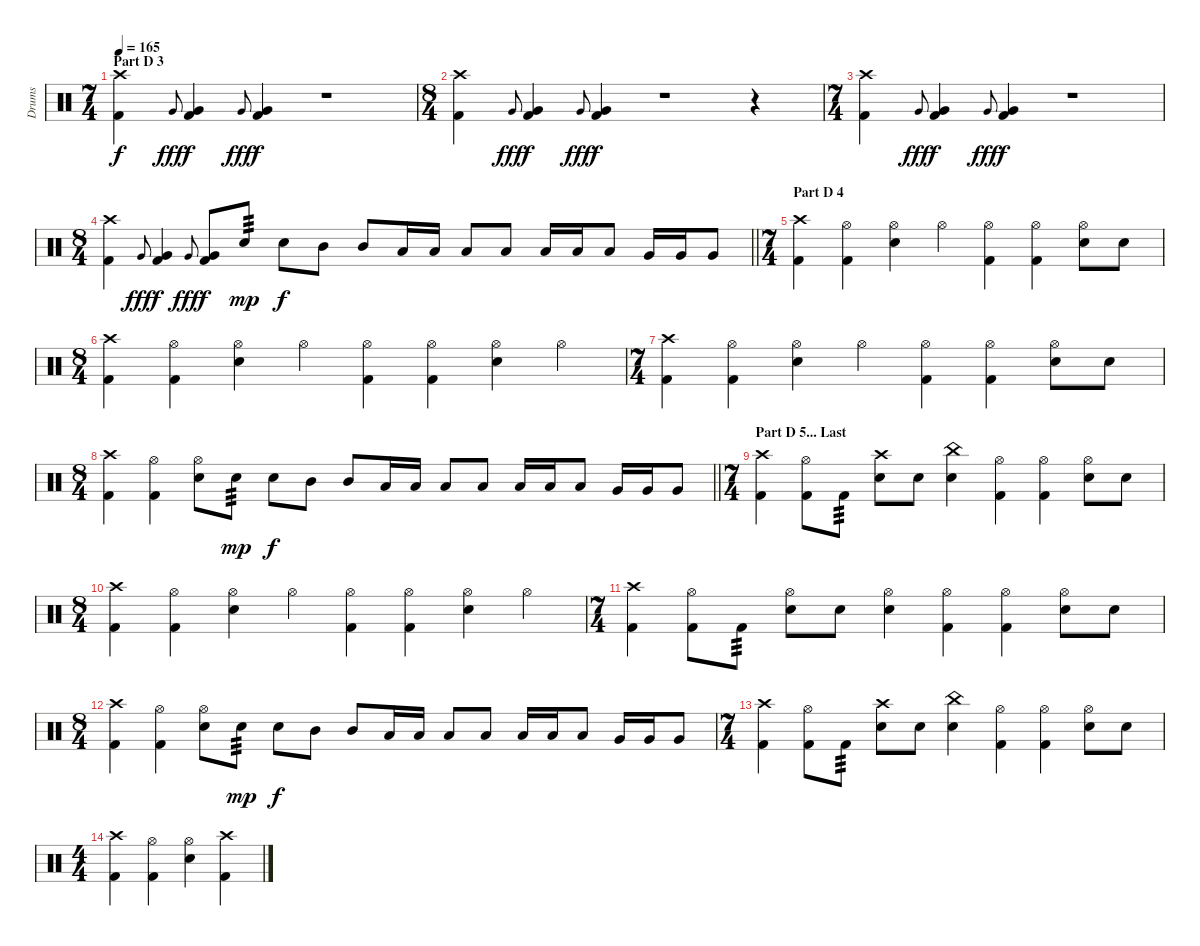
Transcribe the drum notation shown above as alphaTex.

\track ("Drums" "Drums") {instrument percussion}
\staff {score}
\articulation defaults
\ts (7 4)
\section ("" "Part D 3")
\tempo 165
\clef neutral
\ks c
("Kick (hit) 2" "Crash high (hit)").4{dy f} "Very Low Tom (hit)".8{gr onbeat dy fff} ("Kick (hit) 2" "Very Low Tom (hit)").4{dy f} "Very Low Tom (hit)".8{gr onbeat dy fff} ("Very Low Tom (hit)" "Kick (hit) 2").4{dy f} r.1 |
\ts (8 4)
("Kick (hit) 2" "Crash high (hit)").4 "Very Low Tom (hit)".8{gr onbeat dy fff} ("Kick (hit) 2" "Very Low Tom (hit)").4{dy f} "Very Low Tom (hit)".8{gr onbeat dy fff} ("Very Low Tom (hit)" "Kick (hit) 2").4{dy f} r.1 r.4 |
\ts (7 4)
("Kick (hit) 2" "Crash high (hit)").4 "Very Low Tom (hit)".8{gr onbeat dy fff} ("Kick (hit) 2" "Very Low Tom (hit)").4{dy f} "Very Low Tom (hit)".8{gr onbeat dy fff} ("Very Low Tom (hit)" "Kick (hit) 2").4{dy f} r.1 |
\ts (8 4)
\barLineRight lightlight
("Kick (hit) 2" "Crash high (hit)").4 "Very Low Tom (hit)".8{gr onbeat dy fff} ("Kick (hit) 2" "Very Low Tom (hit)").4{dy f} "Very Low Tom (hit)".8{gr onbeat dy fff} ("Very Low Tom (hit)" "Kick (hit) 2").8{dy f} "Snare (hit) 2".8{tp 3 dy mp} "Snare (hit) 2".8{dy f} "Mid Tom (hit)".8 "Mid Tom (hit)".8 "Low Tom (hit)".16 "Low Tom (hit)".16 "Low Tom (hit)".8 "Low Tom (hit)".8 "Low Tom (hit)".16 "Low Tom (hit)".16 "Low Tom (hit)".8 "Very Low Tom (hit)".16 "Very Low Tom (hit)".16 "Very Low Tom (hit)".8 |
\ts (7 4)
\section ("" "Part D 4")
("Kick (hit) 2" "Crash high (hit)").4 ("Hi-Hat (open)" "Kick (hit) 2").4 ("Hi-Hat (open)" "Snare (hit) 2").4 "Hi-Hat (open)".4 ("Hi-Hat (open)" "Kick (hit) 2").4 ("Hi-Hat (open)" "Kick (hit) 2").4 ("Hi-Hat (open)" "Snare (hit) 2").8 "Snare (hit) 2".8 |
\ts (8 4)
("Kick (hit) 2" "Crash high (hit)").4 ("Hi-Hat (open)" "Kick (hit) 2").4 ("Hi-Hat (open)" "Snare (hit) 2").4 "Hi-Hat (open)".4 ("Hi-Hat (open)" "Kick (hit) 2").4 ("Hi-Hat (open)" "Kick (hit) 2").4 ("Hi-Hat (open)" "Snare (hit) 2").4 "Hi-Hat (open)".4 |
\ts (7 4)
("Kick (hit) 2" "Crash high (hit)").4 ("Hi-Hat (open)" "Kick (hit) 2").4 ("Hi-Hat (open)" "Snare (hit) 2").4 "Hi-Hat (open)".4 ("Hi-Hat (open)" "Kick (hit) 2").4 ("Hi-Hat (open)" "Kick (hit) 2").4 ("Hi-Hat (open)" "Snare (hit) 2").8 "Snare (hit) 2".8 |
\ts (8 4)
\barLineRight lightlight
("Kick (hit) 2" "Crash high (hit)").4 ("Hi-Hat (open)" "Kick (hit) 2").4 ("Hi-Hat (open)" "Snare (hit) 2").8 "Snare (hit) 2".8{tp 3 dy mp} "Snare (hit) 2".8{dy f} "Mid Tom (hit)".8 "Mid Tom (hit)".8 "Low Tom (hit)".16 "Low Tom (hit)".16 "Low Tom (hit)".8 "Low Tom (hit)".8 "Low Tom (hit)".16 "Low Tom (hit)".16 "Low Tom (hit)".8 "Very Low Tom (hit)".16 "Very Low Tom (hit)".16 "Very Low Tom (hit)".8 |
\ts (7 4)
\section ("" "Part D 5... Last")
("Kick (hit) 2" "Crash high (hit)").4 ("Hi-Hat (open)" "Kick (hit) 2").8 "Kick (hit) 2".8{tp 3} ("Crash high (hit)" "Snare (hit) 2").8 "Snare (hit) 2".8 ("Snare (hit) 2" "China (hit)").4 ("Hi-Hat (open)" "Kick (hit) 2").4 ("Hi-Hat (open)" "Kick (hit) 2").4 ("Hi-Hat (open)" "Snare (hit) 2").8 "Snare (hit) 2".8 |
\ts (8 4)
("Kick (hit) 2" "Crash high (hit)").4 ("Hi-Hat (open)" "Kick (hit) 2").4 ("Hi-Hat (open)" "Snare (hit) 2").4 "Hi-Hat (open)".4 ("Hi-Hat (open)" "Kick (hit) 2").4 ("Hi-Hat (open)" "Kick (hit) 2").4 ("Hi-Hat (open)" "Snare (hit) 2").4 "Hi-Hat (open)".4 |
\ts (7 4)
("Kick (hit) 2" "Crash high (hit)").4 ("Hi-Hat (open)" "Kick (hit) 2").8 "Kick (hit) 2".8{tp 3} ("Hi-Hat (open)" "Snare (hit) 2").8 "Snare (hit) 2".8 ("Snare (hit) 2" "Hi-Hat (open)").4 ("Hi-Hat (open)" "Kick (hit) 2").4 ("Hi-Hat (open)" "Kick (hit) 2").4 ("Hi-Hat (open)" "Snare (hit) 2").8 "Snare (hit) 2".8 |
\ts (8 4)
("Kick (hit) 2" "Crash high (hit)").4 ("Hi-Hat (open)" "Kick (hit) 2").4 ("Hi-Hat (open)" "Snare (hit) 2").8 "Snare (hit) 2".8{tp 3 dy mp} "Snare (hit) 2".8{dy f} "Mid Tom (hit)".8 "Mid Tom (hit)".8 "Low Tom (hit)".16 "Low Tom (hit)".16 "Low Tom (hit)".8 "Low Tom (hit)".8 "Low Tom (hit)".16 "Low Tom (hit)".16 "Low Tom (hit)".8 "Very Low Tom (hit)".16 "Very Low Tom (hit)".16 "Very Low Tom (hit)".8 |
\ts (7 4)
("Kick (hit) 2" "Crash high (hit)").4 ("Hi-Hat (open)" "Kick (hit) 2").8 "Kick (hit) 2".8{tp 3} ("Crash high (hit)" "Snare (hit) 2").8 "Snare (hit) 2".8 ("Snare (hit) 2" "China (hit)").4 ("Hi-Hat (open)" "Kick (hit) 2").4 ("Hi-Hat (open)" "Kick (hit) 2").4 ("Hi-Hat (open)" "Snare (hit) 2").8 "Snare (hit) 2".8 |
\ts (4 4)
("Kick (hit) 2" "Crash high (hit)").4 ("Hi-Hat (open)" "Kick (hit) 2").4 ("Hi-Hat (open)" "Snare (hit) 2").4 ("Kick (hit) 2" "Crash high (hit)").4
